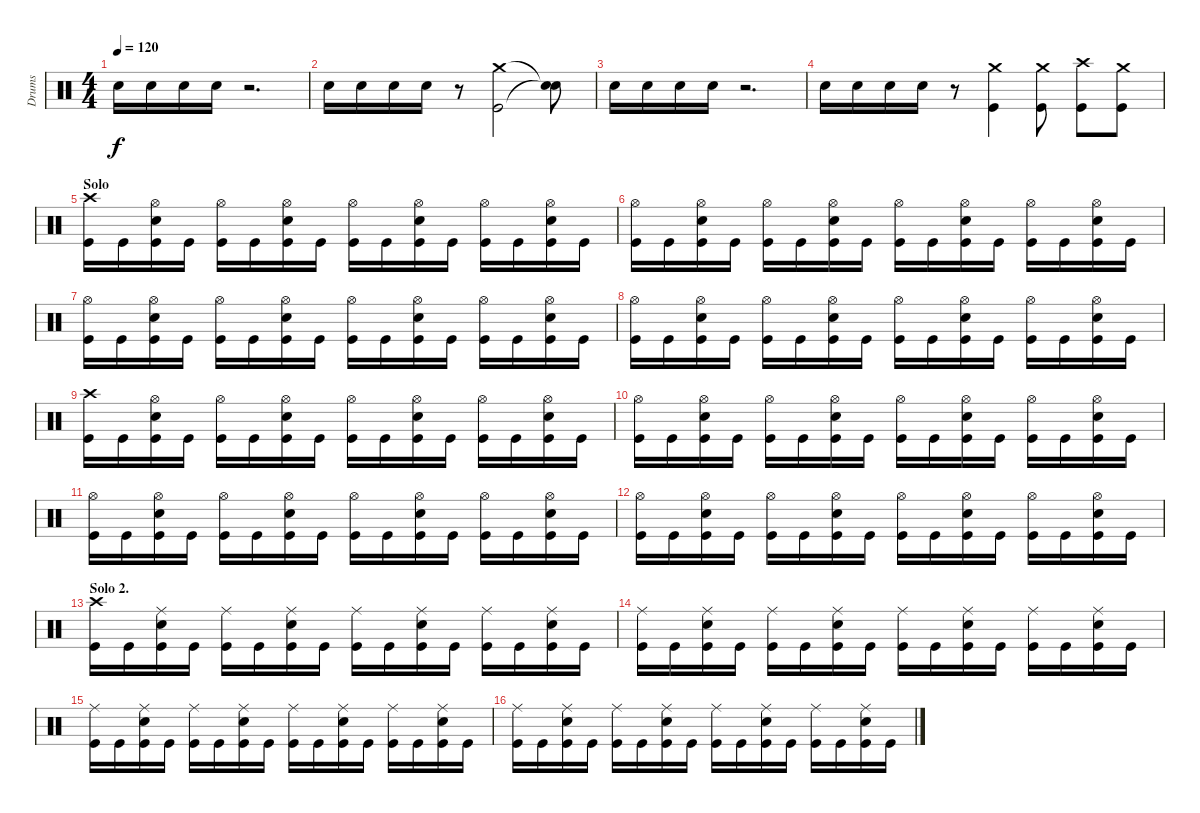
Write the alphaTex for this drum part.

\track ("Drums" "Drums") {instrument percussion}
\staff {score}
\articulation defaults
\ts (4 4)
\tempo 120
\clef neutral
\ks c "Electric Snare (hit)".16{dy f} "Electric Snare (hit)".16 "Electric Snare (hit)".16 "Electric Snare (hit)".16
r.2{d} |
"Electric Snare (hit)".16 "Electric Snare (hit)".16 "Electric Snare (hit)".16 "Electric Snare (hit)".16 r.8 ("Crash medium (hit)" "Kick (hit)").2 ("Snare (hit)"{t} "Snare (hit)"{t}).8 |
"Electric Snare (hit)".16 "Electric Snare (hit)".16 "Electric Snare (hit)".16 "Electric Snare (hit)".16 r.2{d} |
"Electric Snare (hit)".16 "Electric Snare (hit)".16 "Electric Snare (hit)".16 "Electric Snare (hit)".16 r.8 ("Crash medium (hit)" "Kick (hit)").4 ("Crash medium (hit)" "Kick (hit)").8 ("Crash high (hit)" "Kick (hit)").8 ("Crash medium (hit)" "Kick (hit)").8 |
\section ("" "Solo")
("Crash high (hit)" "Kick (hit)").16 "Kick (hit)".16 ("Hi-Hat (open)" "Electric Snare (hit)" "Kick (hit)").16 "Kick (hit)".16 ("Hi-Hat (open)" "Kick (hit)").16 "Kick (hit)".16 ("Hi-Hat (open)" "Electric Snare (hit)" "Kick (hit)").16 "Kick (hit)".16 ("Hi-Hat (open)" "Kick (hit)").16 "Kick (hit)".16 ("Hi-Hat (open)" "Electric Snare (hit)" "Kick (hit)").16 "Kick (hit)".16 ("Hi-Hat (open)" "Kick (hit)").16 "Kick (hit)".16 ("Hi-Hat (open)" "Electric Snare (hit)" "Kick (hit)").16 "Kick (hit)".16 |
("Hi-Hat (open)" "Kick (hit)").16 "Kick (hit)".16 ("Hi-Hat (open)" "Electric Snare (hit)" "Kick (hit)").16 "Kick (hit)".16 ("Hi-Hat (open)" "Kick (hit)").16 "Kick (hit)".16 ("Hi-Hat (open)" "Electric Snare (hit)" "Kick (hit)").16 "Kick (hit)".16 ("Hi-Hat (open)" "Kick (hit)").16 "Kick (hit)".16 ("Hi-Hat (open)" "Electric Snare (hit)" "Kick (hit)").16 "Kick (hit)".16 ("Hi-Hat (open)" "Kick (hit)").16 "Kick (hit)".16 ("Hi-Hat (open)" "Electric Snare (hit)" "Kick (hit)").16 "Kick (hit)".16 |
("Hi-Hat (open)" "Kick (hit)").16 "Kick (hit)".16 ("Hi-Hat (open)" "Electric Snare (hit)" "Kick (hit)").16 "Kick (hit)".16 ("Hi-Hat (open)" "Kick (hit)").16 "Kick (hit)".16 ("Hi-Hat (open)" "Electric Snare (hit)" "Kick (hit)").16 "Kick (hit)".16 ("Hi-Hat (open)" "Kick (hit)").16 "Kick (hit)".16 ("Hi-Hat (open)" "Electric Snare (hit)" "Kick (hit)").16 "Kick (hit)".16 ("Hi-Hat (open)" "Kick (hit)").16 "Kick (hit)".16 ("Hi-Hat (open)" "Electric Snare (hit)" "Kick (hit)").16 "Kick (hit)".16 |
("Hi-Hat (open)" "Kick (hit)").16 "Kick (hit)".16 ("Hi-Hat (open)" "Electric Snare (hit)" "Kick (hit)").16 "Kick (hit)".16 ("Hi-Hat (open)" "Kick (hit)").16 "Kick (hit)".16 ("Hi-Hat (open)" "Electric Snare (hit)" "Kick (hit)").16 "Kick (hit)".16 ("Hi-Hat (open)" "Kick (hit)").16 "Kick (hit)".16 ("Hi-Hat (open)" "Electric Snare (hit)" "Kick (hit)").16 "Kick (hit)".16 ("Hi-Hat (open)" "Kick (hit)").16 "Kick (hit)".16 ("Hi-Hat (open)" "Electric Snare (hit)" "Kick (hit)").16 "Kick (hit)".16 |
("Crash high (hit)" "Kick (hit)").16 "Kick (hit)".16 ("Hi-Hat (open)" "Electric Snare (hit)" "Kick (hit)").16 "Kick (hit)".16 ("Hi-Hat (open)" "Kick (hit)").16 "Kick (hit)".16 ("Hi-Hat (open)" "Electric Snare (hit)" "Kick (hit)").16 "Kick (hit)".16 ("Hi-Hat (open)" "Kick (hit)").16 "Kick (hit)".16 ("Hi-Hat (open)" "Electric Snare (hit)" "Kick (hit)").16 "Kick (hit)".16 ("Hi-Hat (open)" "Kick (hit)").16 "Kick (hit)".16 ("Hi-Hat (open)" "Electric Snare (hit)" "Kick (hit)").16 "Kick (hit)".16 |
("Hi-Hat (open)" "Kick (hit)").16 "Kick (hit)".16 ("Hi-Hat (open)" "Electric Snare (hit)" "Kick (hit)").16 "Kick (hit)".16 ("Hi-Hat (open)" "Kick (hit)").16 "Kick (hit)".16 ("Hi-Hat (open)" "Electric Snare (hit)" "Kick (hit)").16 "Kick (hit)".16 ("Hi-Hat (open)" "Kick (hit)").16 "Kick (hit)".16 ("Hi-Hat (open)" "Electric Snare (hit)" "Kick (hit)").16 "Kick (hit)".16 ("Hi-Hat (open)" "Kick (hit)").16 "Kick (hit)".16 ("Hi-Hat (open)" "Electric Snare (hit)" "Kick (hit)").16 "Kick (hit)".16 |
("Hi-Hat (open)" "Kick (hit)").16 "Kick (hit)".16 ("Hi-Hat (open)" "Electric Snare (hit)" "Kick (hit)").16 "Kick (hit)".16 ("Hi-Hat (open)" "Kick (hit)").16 "Kick (hit)".16 ("Hi-Hat (open)" "Electric Snare (hit)" "Kick (hit)").16 "Kick (hit)".16 ("Hi-Hat (open)" "Kick (hit)").16 "Kick (hit)".16 ("Hi-Hat (open)" "Electric Snare (hit)" "Kick (hit)").16 "Kick (hit)".16 ("Hi-Hat (open)" "Kick (hit)").16 "Kick (hit)".16 ("Hi-Hat (open)" "Electric Snare (hit)" "Kick (hit)").16 "Kick (hit)".16 |
("Hi-Hat (open)" "Kick (hit)").16 "Kick (hit)".16 ("Hi-Hat (open)" "Electric Snare (hit)" "Kick (hit)").16 "Kick (hit)".16 ("Hi-Hat (open)" "Kick (hit)").16 "Kick (hit)".16 ("Hi-Hat (open)" "Electric Snare (hit)" "Kick (hit)").16 "Kick (hit)".16 ("Hi-Hat (open)" "Kick (hit)").16 "Kick (hit)".16 ("Hi-Hat (open)" "Electric Snare (hit)" "Kick (hit)").16 "Kick (hit)".16 ("Hi-Hat (open)" "Kick (hit)").16 "Kick (hit)".16 ("Hi-Hat (open)" "Electric Snare (hit)" "Kick (hit)").16 "Kick (hit)".16 |
\section ("" "Solo 2.")
("Crash high (hit)" "Kick (hit)").16 "Kick (hit)".16 ("Ride (middle)" "Electric Snare (hit)" "Kick (hit)").16 "Kick (hit)".16 ("Ride (middle)" "Kick (hit)").16 "Kick (hit)".16 ("Ride (middle)" "Electric Snare (hit)" "Kick (hit)").16 "Kick (hit)".16 ("Ride (middle)" "Kick (hit)").16 "Kick (hit)".16 ("Ride (middle)" "Electric Snare (hit)" "Kick (hit)").16 "Kick (hit)".16 ("Ride (middle)" "Kick (hit)").16 "Kick (hit)".16 ("Ride (middle)" "Electric Snare (hit)" "Kick (hit)").16 "Kick (hit)".16 |
("Ride (middle)" "Kick (hit)").16 "Kick (hit)".16 ("Ride (middle)" "Electric Snare (hit)" "Kick (hit)").16 "Kick (hit)".16 ("Ride (middle)" "Kick (hit)").16 "Kick (hit)".16 ("Ride (middle)" "Electric Snare (hit)" "Kick (hit)").16 "Kick (hit)".16 ("Ride (middle)" "Kick (hit)").16 "Kick (hit)".16 ("Ride (middle)" "Electric Snare (hit)" "Kick (hit)").16 "Kick (hit)".16 ("Ride (middle)" "Kick (hit)").16 "Kick (hit)".16 ("Ride (middle)" "Electric Snare (hit)" "Kick (hit)").16 "Kick (hit)".16 |
("Ride (middle)" "Kick (hit)").16 "Kick (hit)".16 ("Ride (middle)" "Electric Snare (hit)" "Kick (hit)").16 "Kick (hit)".16 ("Ride (middle)" "Kick (hit)").16 "Kick (hit)".16 ("Ride (middle)" "Electric Snare (hit)" "Kick (hit)").16 "Kick (hit)".16 ("Ride (middle)" "Kick (hit)").16 "Kick (hit)".16 ("Ride (middle)" "Electric Snare (hit)" "Kick (hit)").16 "Kick (hit)".16 ("Ride (middle)" "Kick (hit)").16 "Kick (hit)".16 ("Ride (middle)" "Electric Snare (hit)" "Kick (hit)").16 "Kick (hit)".16 |
("Ride (middle)" "Kick (hit)").16 "Kick (hit)".16 ("Ride (middle)" "Electric Snare (hit)" "Kick (hit)").16 "Kick (hit)".16 ("Ride (middle)" "Kick (hit)").16 "Kick (hit)".16 ("Ride (middle)" "Electric Snare (hit)" "Kick (hit)").16 "Kick (hit)".16 ("Ride (middle)" "Kick (hit)").16 "Kick (hit)".16 ("Ride (middle)" "Electric Snare (hit)" "Kick (hit)").16 "Kick (hit)".16 ("Ride (middle)" "Kick (hit)").16 "Kick (hit)".16 ("Ride (middle)" "Electric Snare (hit)" "Kick (hit)").16 "Kick (hit)".16
